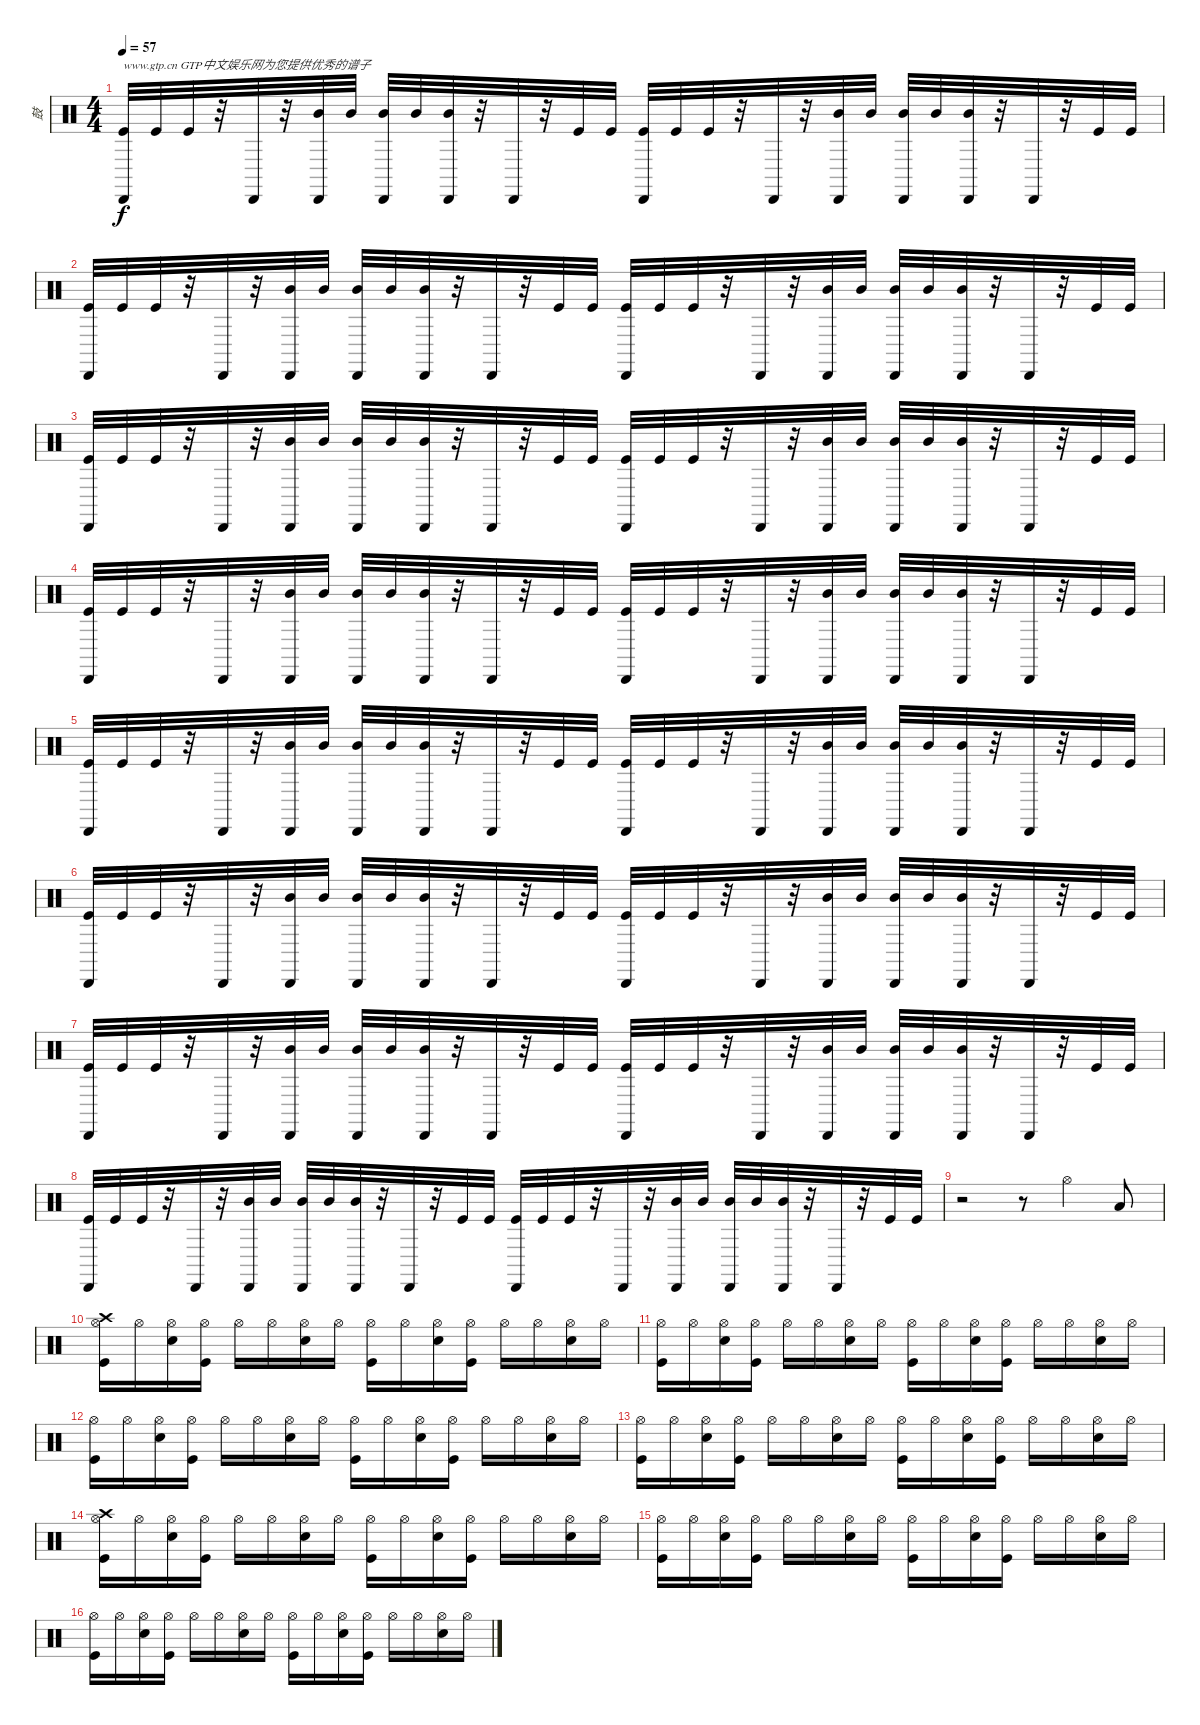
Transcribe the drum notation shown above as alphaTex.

\track ("鼓" "鼓") {instrument percussion}
\staff {score}
\articulation defaults
\ts (4 4)
\tempo 57
\clef neutral
\ks c
("Kick (hit)" "Cabasa (hit)").32{txt "www.gtp.cn GTP中文娱乐网为您提供优秀的谱子" dy f} "Kick (hit)".32 "Kick (hit)".32 r.32 "Cabasa (hit)".32 r.32 ("Mid Tom (hit)" "Cabasa (hit)").32 "Mid Tom (hit)".32 ("Mid Tom (hit)" "Cabasa (hit)").32 "Mid Tom (hit)".32 ("Mid Tom (hit)" "Cabasa (hit)").32 r.32 "Cabasa (hit)".32 r.32 "Kick (hit)".32 "Kick (hit)".32 ("Kick (hit)" "Cabasa (hit)").32 "Kick (hit)".32 "Kick (hit)".32 r.32 "Cabasa (hit)".32 r.32 ("Mid Tom (hit)" "Cabasa (hit)").32 "Mid Tom (hit)".32 ("Mid Tom (hit)" "Cabasa (hit)").32 "Mid Tom (hit)".32 ("Mid Tom (hit)" "Cabasa (hit)").32 r.32 "Cabasa (hit)".32 r.32 "Kick (hit)".32 "Kick (hit)".32 |
("Kick (hit)" "Cabasa (hit)").32 "Kick (hit)".32 "Kick (hit)".32 r.32 "Cabasa (hit)".32 r.32 ("Mid Tom (hit)" "Cabasa (hit)").32 "Mid Tom (hit)".32 ("Mid Tom (hit)" "Cabasa (hit)").32 "Mid Tom (hit)".32 ("Mid Tom (hit)" "Cabasa (hit)").32 r.32 "Cabasa (hit)".32 r.32 "Kick (hit)".32 "Kick (hit)".32 ("Kick (hit)" "Cabasa (hit)").32 "Kick (hit)".32 "Kick (hit)".32 r.32 "Cabasa (hit)".32 r.32 ("Mid Tom (hit)" "Cabasa (hit)").32 "Mid Tom (hit)".32 ("Mid Tom (hit)" "Cabasa (hit)").32 "Mid Tom (hit)".32 ("Mid Tom (hit)" "Cabasa (hit)").32 r.32 "Cabasa (hit)".32 r.32 "Kick (hit)".32 "Kick (hit)".32 |
("Kick (hit)" "Cabasa (hit)").32 "Kick (hit)".32 "Kick (hit)".32 r.32 "Cabasa (hit)".32 r.32 ("Mid Tom (hit)" "Cabasa (hit)").32 "Mid Tom (hit)".32 ("Mid Tom (hit)" "Cabasa (hit)").32 "Mid Tom (hit)".32 ("Mid Tom (hit)" "Cabasa (hit)").32 r.32 "Cabasa (hit)".32 r.32 "Kick (hit)".32 "Kick (hit)".32 ("Kick (hit)" "Cabasa (hit)").32 "Kick (hit)".32 "Kick (hit)".32 r.32 "Cabasa (hit)".32 r.32 ("Mid Tom (hit)" "Cabasa (hit)").32 "Mid Tom (hit)".32 ("Mid Tom (hit)" "Cabasa (hit)").32 "Mid Tom (hit)".32 ("Mid Tom (hit)" "Cabasa (hit)").32 r.32 "Cabasa (hit)".32 r.32 "Kick (hit)".32 "Kick (hit)".32 |
("Kick (hit)" "Cabasa (hit)").32 "Kick (hit)".32 "Kick (hit)".32 r.32 "Cabasa (hit)".32 r.32 ("Mid Tom (hit)" "Cabasa (hit)").32 "Mid Tom (hit)".32 ("Mid Tom (hit)" "Cabasa (hit)").32 "Mid Tom (hit)".32 ("Mid Tom (hit)" "Cabasa (hit)").32 r.32 "Cabasa (hit)".32 r.32 "Kick (hit)".32 "Kick (hit)".32 ("Kick (hit)" "Cabasa (hit)").32 "Kick (hit)".32 "Kick (hit)".32 r.32 "Cabasa (hit)".32 r.32 ("Mid Tom (hit)" "Cabasa (hit)").32 "Mid Tom (hit)".32 ("Mid Tom (hit)" "Cabasa (hit)").32 "Mid Tom (hit)".32 ("Mid Tom (hit)" "Cabasa (hit)").32 r.32 "Cabasa (hit)".32 r.32 "Kick (hit)".32 "Kick (hit)".32 |
("Kick (hit)" "Cabasa (hit)").32 "Kick (hit)".32 "Kick (hit)".32 r.32 "Cabasa (hit)".32 r.32 ("Mid Tom (hit)" "Cabasa (hit)").32 "Mid Tom (hit)".32 ("Mid Tom (hit)" "Cabasa (hit)").32 "Mid Tom (hit)".32 ("Mid Tom (hit)" "Cabasa (hit)").32 r.32 "Cabasa (hit)".32 r.32 "Kick (hit)".32 "Kick (hit)".32 ("Kick (hit)" "Cabasa (hit)").32 "Kick (hit)".32 "Kick (hit)".32 r.32 "Cabasa (hit)".32 r.32 ("Mid Tom (hit)" "Cabasa (hit)").32 "Mid Tom (hit)".32 ("Mid Tom (hit)" "Cabasa (hit)").32 "Mid Tom (hit)".32 ("Mid Tom (hit)" "Cabasa (hit)").32 r.32 "Cabasa (hit)".32 r.32 "Kick (hit)".32 "Kick (hit)".32 |
("Kick (hit)" "Cabasa (hit)").32 "Kick (hit)".32 "Kick (hit)".32 r.32 "Cabasa (hit)".32 r.32 ("Mid Tom (hit)" "Cabasa (hit)").32 "Mid Tom (hit)".32 ("Mid Tom (hit)" "Cabasa (hit)").32 "Mid Tom (hit)".32 ("Mid Tom (hit)" "Cabasa (hit)").32 r.32 "Cabasa (hit)".32 r.32 "Kick (hit)".32 "Kick (hit)".32 ("Kick (hit)" "Cabasa (hit)").32 "Kick (hit)".32 "Kick (hit)".32 r.32 "Cabasa (hit)".32 r.32 ("Mid Tom (hit)" "Cabasa (hit)").32 "Mid Tom (hit)".32 ("Mid Tom (hit)" "Cabasa (hit)").32 "Mid Tom (hit)".32 ("Mid Tom (hit)" "Cabasa (hit)").32 r.32 "Cabasa (hit)".32 r.32 "Kick (hit)".32 "Kick (hit)".32 |
("Kick (hit)" "Cabasa (hit)").32 "Kick (hit)".32 "Kick (hit)".32 r.32 "Cabasa (hit)".32 r.32 ("Mid Tom (hit)" "Cabasa (hit)").32 "Mid Tom (hit)".32 ("Mid Tom (hit)" "Cabasa (hit)").32 "Mid Tom (hit)".32 ("Mid Tom (hit)" "Cabasa (hit)").32 r.32 "Cabasa (hit)".32 r.32 "Kick (hit)".32 "Kick (hit)".32 ("Kick (hit)" "Cabasa (hit)").32 "Kick (hit)".32 "Kick (hit)".32 r.32 "Cabasa (hit)".32 r.32 ("Mid Tom (hit)" "Cabasa (hit)").32 "Mid Tom (hit)".32 ("Mid Tom (hit)" "Cabasa (hit)").32 "Mid Tom (hit)".32 ("Mid Tom (hit)" "Cabasa (hit)").32 r.32 "Cabasa (hit)".32 r.32 "Kick (hit)".32 "Kick (hit)".32 |
("Kick (hit)" "Cabasa (hit)").32 "Kick (hit)".32 "Kick (hit)".32 r.32 "Cabasa (hit)".32 r.32 ("Mid Tom (hit)" "Cabasa (hit)").32 "Mid Tom (hit)".32 ("Mid Tom (hit)" "Cabasa (hit)").32 "Mid Tom (hit)".32 ("Mid Tom (hit)" "Cabasa (hit)").32 r.32 "Cabasa (hit)".32 r.32 "Kick (hit)".32 "Kick (hit)".32 ("Kick (hit)" "Cabasa (hit)").32 "Kick (hit)".32 "Kick (hit)".32 r.32 "Cabasa (hit)".32 r.32 ("Mid Tom (hit)" "Cabasa (hit)").32 "Mid Tom (hit)".32 ("Mid Tom (hit)" "Cabasa (hit)").32 "Mid Tom (hit)".32 ("Mid Tom (hit)" "Cabasa (hit)").32 r.32 "Cabasa (hit)".32 r.32 "Kick (hit)".32 "Kick (hit)".32 |
r.2 r.8 "Hi-Hat (open)".4 "Low Tom (hit)".8 |
("Crash high (hit)" "Kick (hit)" "Hi-Hat (open)").16 "Hi-Hat (open)".16 ("Electric Snare (hit)" "Hi-Hat (open)").16 ("Kick (hit)" "Hi-Hat (open)").16 "Hi-Hat (open)".16 "Hi-Hat (open)".16 ("Electric Snare (hit)" "Hi-Hat (open)").16 "Hi-Hat (open)".16 ("Kick (hit)" "Hi-Hat (open)").16 "Hi-Hat (open)".16 ("Electric Snare (hit)" "Hi-Hat (open)").16 ("Kick (hit)" "Hi-Hat (open)").16 "Hi-Hat (open)".16 "Hi-Hat (open)".16 ("Electric Snare (hit)" "Hi-Hat (open)").16 "Hi-Hat (open)".16 |
("Kick (hit)" "Hi-Hat (open)").16 "Hi-Hat (open)".16 ("Electric Snare (hit)" "Hi-Hat (open)").16 ("Kick (hit)" "Hi-Hat (open)").16 "Hi-Hat (open)".16 "Hi-Hat (open)".16 ("Electric Snare (hit)" "Hi-Hat (open)").16 "Hi-Hat (open)".16 ("Kick (hit)" "Hi-Hat (open)").16 "Hi-Hat (open)".16 ("Electric Snare (hit)" "Hi-Hat (open)").16 ("Kick (hit)" "Hi-Hat (open)").16 "Hi-Hat (open)".16 "Hi-Hat (open)".16 ("Electric Snare (hit)" "Hi-Hat (open)").16 "Hi-Hat (open)".16 |
("Kick (hit)" "Hi-Hat (open)").16 "Hi-Hat (open)".16 ("Electric Snare (hit)" "Hi-Hat (open)").16 ("Kick (hit)" "Hi-Hat (open)").16 "Hi-Hat (open)".16 "Hi-Hat (open)".16 ("Electric Snare (hit)" "Hi-Hat (open)").16 "Hi-Hat (open)".16 ("Kick (hit)" "Hi-Hat (open)").16 "Hi-Hat (open)".16 ("Electric Snare (hit)" "Hi-Hat (open)").16 ("Kick (hit)" "Hi-Hat (open)").16 "Hi-Hat (open)".16 "Hi-Hat (open)".16 ("Electric Snare (hit)" "Hi-Hat (open)").16 "Hi-Hat (open)".16 |
("Kick (hit)" "Hi-Hat (open)").16 "Hi-Hat (open)".16 ("Electric Snare (hit)" "Hi-Hat (open)").16 ("Kick (hit)" "Hi-Hat (open)").16 "Hi-Hat (open)".16 "Hi-Hat (open)".16 ("Electric Snare (hit)" "Hi-Hat (open)").16 "Hi-Hat (open)".16 ("Kick (hit)" "Hi-Hat (open)").16 "Hi-Hat (open)".16 ("Electric Snare (hit)" "Hi-Hat (open)").16 ("Kick (hit)" "Hi-Hat (open)").16 "Hi-Hat (open)".16 "Hi-Hat (open)".16 ("Electric Snare (hit)" "Hi-Hat (open)").16 "Hi-Hat (open)".16 |
("Crash high (hit)" "Kick (hit)" "Hi-Hat (open)").16 "Hi-Hat (open)".16 ("Electric Snare (hit)" "Hi-Hat (open)").16 ("Kick (hit)" "Hi-Hat (open)").16 "Hi-Hat (open)".16 "Hi-Hat (open)".16 ("Electric Snare (hit)" "Hi-Hat (open)").16 "Hi-Hat (open)".16 ("Kick (hit)" "Hi-Hat (open)").16 "Hi-Hat (open)".16 ("Electric Snare (hit)" "Hi-Hat (open)").16 ("Kick (hit)" "Hi-Hat (open)").16 "Hi-Hat (open)".16 "Hi-Hat (open)".16 ("Electric Snare (hit)" "Hi-Hat (open)").16 "Hi-Hat (open)".16 |
("Kick (hit)" "Hi-Hat (open)").16 "Hi-Hat (open)".16 ("Electric Snare (hit)" "Hi-Hat (open)").16 ("Kick (hit)" "Hi-Hat (open)").16 "Hi-Hat (open)".16 "Hi-Hat (open)".16 ("Electric Snare (hit)" "Hi-Hat (open)").16 "Hi-Hat (open)".16 ("Kick (hit)" "Hi-Hat (open)").16 "Hi-Hat (open)".16 ("Electric Snare (hit)" "Hi-Hat (open)").16 ("Kick (hit)" "Hi-Hat (open)").16 "Hi-Hat (open)".16 "Hi-Hat (open)".16 ("Electric Snare (hit)" "Hi-Hat (open)").16 "Hi-Hat (open)".16 |
("Kick (hit)" "Hi-Hat (open)").16 "Hi-Hat (open)".16 ("Electric Snare (hit)" "Hi-Hat (open)").16 ("Kick (hit)" "Hi-Hat (open)").16 "Hi-Hat (open)".16 "Hi-Hat (open)".16 ("Electric Snare (hit)" "Hi-Hat (open)").16 "Hi-Hat (open)".16 ("Kick (hit)" "Hi-Hat (open)").16 "Hi-Hat (open)".16 ("Electric Snare (hit)" "Hi-Hat (open)").16 ("Kick (hit)" "Hi-Hat (open)").16 "Hi-Hat (open)".16 "Hi-Hat (open)".16 ("Electric Snare (hit)" "Hi-Hat (open)").16 "Hi-Hat (open)".16
